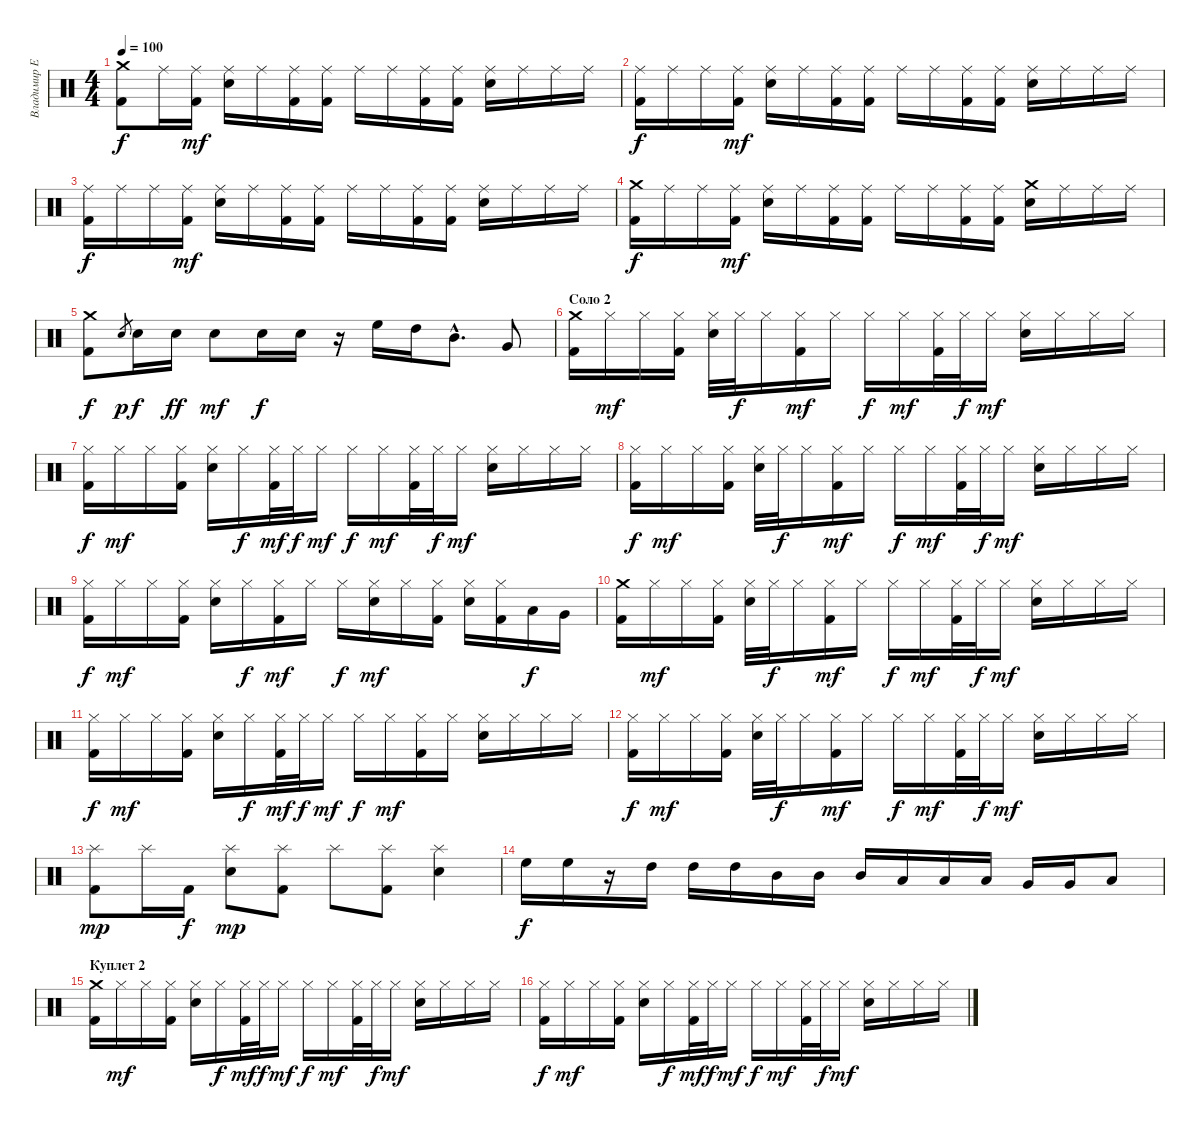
\track ("Владимир Ермаков" "Владимир Е") {instrument percussion}
\staff {score}
\articulation defaults
\ts (4 4)
\tempo 100
\clef neutral
\ks c
("Crash medium (hit)" "Kick (hit) 2").8{dy f} "Ride (middle)".16 ("Ride (middle)" "Kick (hit) 2").16{dy mf} ("Ride (middle)" "Electric Snare (hit)").16 "Ride (middle)".16 ("Ride (middle)" "Kick (hit) 2").16 ("Ride (middle)" "Kick (hit) 2").16 "Ride (middle)".16 "Ride (middle)".16 ("Ride (middle)" "Kick (hit) 2").16 ("Ride (middle)" "Kick (hit) 2").16 ("Ride (middle)" "Electric Snare (hit)").16 "Ride (middle)".16 "Ride (middle)".16 "Ride (middle)".16 |
("Ride (middle)" "Kick (hit) 2").16{dy f} "Ride (middle)".16 "Ride (middle)".16 ("Ride (middle)" "Kick (hit) 2").16{dy mf} ("Ride (middle)" "Electric Snare (hit)").16 "Ride (middle)".16 ("Ride (middle)" "Kick (hit) 2").16 ("Ride (middle)" "Kick (hit) 2").16 "Ride (middle)".16 "Ride (middle)".16 ("Ride (middle)" "Kick (hit) 2").16 ("Ride (middle)" "Kick (hit) 2").16 ("Ride (middle)" "Electric Snare (hit)").16 "Ride (middle)".16 "Ride (middle)".16 "Ride (middle)".16 |
("Ride (middle)" "Kick (hit) 2").16{dy f} "Ride (middle)".16 "Ride (middle)".16 ("Ride (middle)" "Kick (hit) 2").16{dy mf} ("Ride (middle)" "Electric Snare (hit)").16 "Ride (middle)".16 ("Ride (middle)" "Kick (hit) 2").16 ("Ride (middle)" "Kick (hit) 2").16 "Ride (middle)".16 "Ride (middle)".16 ("Ride (middle)" "Kick (hit) 2").16 ("Ride (middle)" "Kick (hit) 2").16 ("Ride (middle)" "Electric Snare (hit)").16 "Ride (middle)".16 "Ride (middle)".16 "Ride (middle)".16 |
("Crash medium (hit)" "Kick (hit) 2").16{dy f} "Ride (middle)".16 "Ride (middle)".16 ("Ride (middle)" "Kick (hit) 2").16{dy mf} ("Ride (middle)" "Electric Snare (hit)").16 "Ride (middle)".16 ("Ride (middle)" "Kick (hit) 2").16 ("Ride (middle)" "Kick (hit) 2").16 "Ride (middle)".16 "Ride (middle)".16 ("Ride (middle)" "Kick (hit) 2").16 ("Ride (middle)" "Kick (hit) 2").16 ("Crash medium (hit)" "Electric Snare (hit)").16 "Ride (middle)".16 "Ride (middle)".16 "Ride (middle)".16 |
("Crash medium (hit)" "Kick (hit) 2").8{dy f} "Electric Snare (hit)".8{gr dy p} "Electric Snare (hit)".16{dy f} "Electric Snare (hit)".16{dy ff} "Electric Snare (hit)".8{dy mf} "Electric Snare (hit)".16{dy f} "Electric Snare (hit)".16 r.16 "High Floor Tom (hit)".16 "High Tom (hit)".16 "Mid Tom (hit)"{hac}.8{d} "Very Low Tom (hit)".8 |
\section ("" "Соло 2")
("Kick (hit) 2" "Crash medium (hit)").16 "Hi-Hat (closed)".16{dy mf} "Hi-Hat (closed)".16 ("Kick (hit) 2" "Hi-Hat (closed)").16 ("Electric Snare (hit)" "Hi-Hat (closed)").32 "Hi-Hat (closed)".32{dy f} "Hi-Hat (closed)".16 ("Kick (hit) 2" "Hi-Hat (closed)").16{dy mf} "Hi-Hat (closed)".16 "Hi-Hat (closed)".16{dy f} "Hi-Hat (closed)".16{dy mf} ("Kick (hit) 2" "Hi-Hat (closed)").32 "Hi-Hat (closed)".32{dy f} "Hi-Hat (closed)".16{dy mf} ("Electric Snare (hit)" "Hi-Hat (closed)").16 "Hi-Hat (closed)".16 "Hi-Hat (closed)".16 "Hi-Hat (closed)".16 |
("Kick (hit) 2" "Hi-Hat (closed)").16{dy f} "Hi-Hat (closed)".16{dy mf} "Hi-Hat (closed)".16 ("Kick (hit) 2" "Hi-Hat (closed)").16 ("Electric Snare (hit)" "Hi-Hat (closed)").16 "Hi-Hat (closed)".16{dy f} ("Kick (hit) 2" "Hi-Hat (closed)").32{dy mf} "Hi-Hat (closed)".32{dy f} "Hi-Hat (closed)".16{dy mf} "Hi-Hat (closed)".16{dy f} "Hi-Hat (closed)".16{dy mf} ("Kick (hit) 2" "Hi-Hat (closed)").32 "Hi-Hat (closed)".32{dy f} "Hi-Hat (closed)".16{dy mf} ("Electric Snare (hit)" "Hi-Hat (closed)").16 "Hi-Hat (closed)".16 "Hi-Hat (closed)".16 "Hi-Hat (closed)".16 |
("Kick (hit) 2" "Hi-Hat (closed)").16{dy f} "Hi-Hat (closed)".16{dy mf} "Hi-Hat (closed)".16 ("Kick (hit) 2" "Hi-Hat (closed)").16 ("Electric Snare (hit)" "Hi-Hat (closed)").32 "Hi-Hat (closed)".32{dy f} "Hi-Hat (closed)".16 ("Kick (hit) 2" "Hi-Hat (closed)").16{dy mf} "Hi-Hat (closed)".16 "Hi-Hat (closed)".16{dy f} "Hi-Hat (closed)".16{dy mf} ("Kick (hit) 2" "Hi-Hat (closed)").32 "Hi-Hat (closed)".32{dy f} "Hi-Hat (closed)".16{dy mf} ("Electric Snare (hit)" "Hi-Hat (closed)").16 "Hi-Hat (closed)".16 "Hi-Hat (closed)".16 "Hi-Hat (closed)".16 |
("Kick (hit) 2" "Hi-Hat (closed)").16{dy f} "Hi-Hat (closed)".16{dy mf} "Hi-Hat (closed)".16 ("Kick (hit) 2" "Hi-Hat (closed)").16 ("Electric Snare (hit)" "Hi-Hat (closed)").16 "Hi-Hat (closed)".16{dy f} ("Kick (hit) 2" "Hi-Hat (closed)").16{dy mf} "Hi-Hat (closed)".16 "Hi-Hat (closed)".16{dy f} ("Electric Snare (hit)" "Hi-Hat (closed)").16{dy mf} "Hi-Hat (closed)".16 ("Kick (hit) 2" "Hi-Hat (closed)").16 ("Electric Snare (hit)" "Hi-Hat (closed)").16 ("Kick (hit) 2" "Hi-Hat (closed)").16 "Low Tom (hit)".16{dy f} "Very Low Tom (hit)".16 |
("Kick (hit) 2" "Crash medium (hit)").16 "Hi-Hat (closed)".16{dy mf} "Hi-Hat (closed)".16 ("Kick (hit) 2" "Hi-Hat (closed)").16 ("Electric Snare (hit)" "Hi-Hat (closed)").32 "Hi-Hat (closed)".32{dy f} "Hi-Hat (closed)".16 ("Kick (hit) 2" "Hi-Hat (closed)").16{dy mf} "Hi-Hat (closed)".16 "Hi-Hat (closed)".16{dy f} "Hi-Hat (closed)".16{dy mf} ("Kick (hit) 2" "Hi-Hat (closed)").32 "Hi-Hat (closed)".32{dy f} "Hi-Hat (closed)".16{dy mf} ("Electric Snare (hit)" "Hi-Hat (closed)").16 "Hi-Hat (closed)".16 "Hi-Hat (closed)".16 "Hi-Hat (closed)".16 |
("Kick (hit) 2" "Hi-Hat (closed)").16{dy f} "Hi-Hat (closed)".16{dy mf} "Hi-Hat (closed)".16 ("Kick (hit) 2" "Hi-Hat (closed)").16 ("Electric Snare (hit)" "Hi-Hat (closed)").16 "Hi-Hat (closed)".16{dy f} ("Kick (hit) 2" "Hi-Hat (closed)").32{dy mf} "Hi-Hat (closed)".32{dy f} "Hi-Hat (closed)".16{dy mf} "Hi-Hat (closed)".16{dy f} "Hi-Hat (closed)".16{dy mf} ("Kick (hit) 2" "Hi-Hat (closed)").16 "Hi-Hat (closed)".16 ("Electric Snare (hit)" "Hi-Hat (closed)").16 "Hi-Hat (closed)".16 "Hi-Hat (closed)".16 "Hi-Hat (closed)".16 |
("Kick (hit) 2" "Hi-Hat (closed)").16{dy f} "Hi-Hat (closed)".16{dy mf} "Hi-Hat (closed)".16 ("Kick (hit) 2" "Hi-Hat (closed)").16 ("Electric Snare (hit)" "Hi-Hat (closed)").32 "Hi-Hat (closed)".32{dy f} "Hi-Hat (closed)".16 ("Kick (hit) 2" "Hi-Hat (closed)").16{dy mf} "Hi-Hat (closed)".16 "Hi-Hat (closed)".16{dy f} "Hi-Hat (closed)".16{dy mf} ("Kick (hit) 2" "Hi-Hat (closed)").32 "Hi-Hat (closed)".32{dy f} "Hi-Hat (closed)".16{dy mf} ("Electric Snare (hit)" "Hi-Hat (closed)").16 "Hi-Hat (closed)".16 "Hi-Hat (closed)".16 "Hi-Hat (closed)".16 |
("Kick (hit) 2" "Splash (hit)").8{dy mp} "Splash (hit)".16 "Kick (hit) 2".16{dy f} ("Electric Snare (hit)" "Splash (hit)").8{dy mp} ("Kick (hit) 2" "Splash (hit)").8 "Splash (hit)".8 ("Kick (hit) 2" "Splash (hit)").8 ("Electric Snare (hit)" "Splash (hit)").4 |
"High Floor Tom (hit)".16{dy f} "High Floor Tom (hit)".16 r.16 "High Tom (hit)".16 "High Tom (hit)".16 "High Tom (hit)".16 "Mid Tom (hit)".16 "Mid Tom (hit)".16 "Mid Tom (hit)".16 "Low Tom (hit)".16 "Low Tom (hit)".16 "Low Tom (hit)".16 "Very Low Tom (hit)".16 "Very Low Tom (hit)".16 "Low Floor Tom (hit)".8 |
\section ("" "Куплет 2")
("Kick (hit) 2" "Crash medium (hit)").16 "Hi-Hat (closed)".16{dy mf} "Hi-Hat (closed)".16 ("Kick (hit) 2" "Hi-Hat (closed)").16 ("Electric Snare (hit)" "Hi-Hat (closed)").16 "Hi-Hat (closed)".16{dy f} ("Kick (hit) 2" "Hi-Hat (closed)").32{dy mf} "Hi-Hat (closed)".32{dy f} "Hi-Hat (closed)".16{dy mf} "Hi-Hat (closed)".16{dy f} "Hi-Hat (closed)".16{dy mf} ("Kick (hit) 2" "Hi-Hat (closed)").32 "Hi-Hat (closed)".32{dy f} "Hi-Hat (closed)".16{dy mf} ("Electric Snare (hit)" "Hi-Hat (closed)").16 "Hi-Hat (closed)".16 "Hi-Hat (closed)".16 "Hi-Hat (closed)".16 |
("Kick (hit) 2" "Hi-Hat (closed)").16{dy f} "Hi-Hat (closed)".16{dy mf} "Hi-Hat (closed)".16 ("Kick (hit) 2" "Hi-Hat (closed)").16 ("Electric Snare (hit)" "Hi-Hat (closed)").16 "Hi-Hat (closed)".16{dy f} ("Kick (hit) 2" "Hi-Hat (closed)").32{dy mf} "Hi-Hat (closed)".32{dy f} "Hi-Hat (closed)".16{dy mf} "Hi-Hat (closed)".16{dy f} "Hi-Hat (closed)".16{dy mf} ("Kick (hit) 2" "Hi-Hat (closed)").32 "Hi-Hat (closed)".32{dy f} "Hi-Hat (closed)".16{dy mf} ("Electric Snare (hit)" "Hi-Hat (closed)").16 "Hi-Hat (closed)".16 "Hi-Hat (closed)".16 "Hi-Hat (closed)".16
